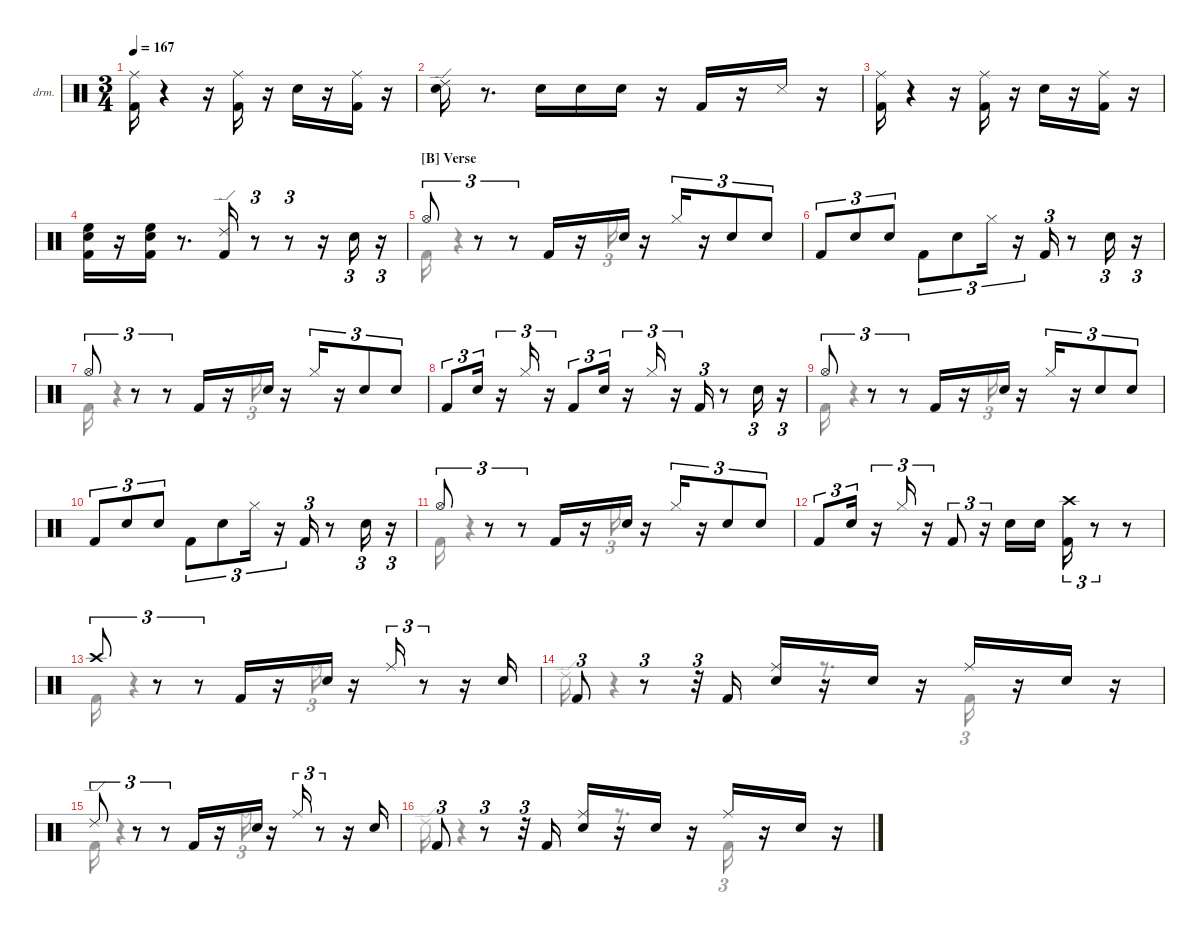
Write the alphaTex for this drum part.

\hideDynamics
\bracketExtendMode nobrackets
\firstSystemTrackNameOrientation horizontal
\otherSystemsTrackNameOrientation horizontal
\track ("Drums" "drm.") {instrument percussion}
\staff {score}
\articulation defaults
\voice
\ts (3 4)
\tempo 167
\clef neutral
\ks aminor
("Ride (middle)"{acc #} "Kick (hit) 2").16{dy fff beam Down} r.4{beam Down} r.16{beam Down} ("Ride (middle)"{acc #} "Kick (hit) 2").16{dy ff beam Down} r.16{beam Down} "Snare (hit) 2".16{dy mp beam Down} r.16{beam Down} ("Kick (hit) 2" "Ride (middle)"{acc #}).16{dy ff beam Down} r.16{beam Down} |
("Snare (hit) 2" "Ride (edge) 2").16{beam Down} r.8{d beam Down} "Snare (hit) 2".16{dy p beam Down} "Snare (hit) 2".16{dy ppp beam Down} "Snare (hit) 2".16{dy mf beam Down} r.16{beam Down} "Kick (hit) 2".16{dy mp beam Up} r.16{beam Up} "Snare (side stick) 3"{acc #}.16{dy fff beam Down} r.16{beam Down} |
("Ride (middle)"{acc #} "Kick (hit) 2").16{beam Down} r.4{beam Down} r.16{beam Down} ("Kick (hit) 2" "Ride (middle)"{acc #}).16{dy ff beam Down} r.16{beam Down} "Snare (hit) 2".16{dy mp beam Down} r.16{beam Down} ("Kick (hit) 2" "Ride (middle)"{acc #}).16{dy ff beam Down} r.16{beam Down} |
("Snare (hit) 2" "Kick (hit) 2" "High Floor Tom (hit)").16{beam Down} r.16{beam Down} ("Kick (hit) 2" "Snare (hit) 2" "High Floor Tom (hit)").16{beam Down} r.8{d beam Down} ("Kick (hit) 2" "Ride (edge) 2").16{dy fff beam Up} r.8{tu (3 2) beam Up} r.8{tu (3 2) beam Up} r.16{beam Up} "Snare (hit) 2".16{tu (3 2) dy mf beam Down} r.16{tu (3 2) beam Down} |
\section ("B" "Verse")
"Hi-Hat (open)"{acc #}.8{tu (3 2) dy ff beam Up} r.8{tu (3 2) beam Up} r.8{tu (3 2) beam Up} "Kick (hit) 2".16{beam Up} r.16{beam Up} "Snare (hit) 2".16{beam Up} r.16{beam Up} "Hi-Hat (closed)"{acc #}.16{tu (3 2) dy fff beam Up} r.16{tu (3 2) beam Up} "Snare (hit) 2".8{tu (3 2) dy ff beam Up} "Snare (hit) 2".8{tu (3 2) beam Up} |
"Kick (hit) 2".8{tu (3 2) beam Up} "Snare (hit) 2".8{tu (3 2) beam Up} "Snare (hit) 2".8{tu (3 2) beam Up} "Kick (hit) 2".8{tu (3 2) beam Down} "Snare (hit) 2".8{tu (3 2) beam Down} "Hi-Hat (closed)"{acc #}.16{tu (3 2) beam Down} r.16{tu (3 2) beam Down} "Kick (hit) 2".16{tu (3 2) beam Up} r.8{beam Up} "Snare (hit) 2".16{tu (3 2) beam Down} r.16{tu (3 2) beam Down} |
"Hi-Hat (open)"{acc #}.8{tu (3 2) beam Up} r.8{tu (3 2) beam Up} r.8{tu (3 2) beam Up} "Kick (hit) 2".16{beam Up} r.16{beam Up} "Snare (hit) 2".16{beam Up} r.16{beam Up} "Hi-Hat (closed)"{acc #}.16{tu (3 2) dy fff beam Up} r.16{tu (3 2) beam Up} "Snare (hit) 2".8{tu (3 2) dy ff beam Up} "Snare (hit) 2".8{tu (3 2) beam Up} |
"Kick (hit) 2".8{tu (3 2) beam Up} "Snare (hit) 2".16{tu (3 2) dy f beam Up} r.16{tu (3 2) beam Up} "Hi-Hat (closed)"{acc #}.16{tu (3 2) dy ff beam Down} r.16{tu (3 2) beam Down} "Kick (hit) 2".8{tu (3 2) beam Up} "Snare (hit) 2".16{tu (3 2) dy f beam Up} r.16{tu (3 2) beam Up} "Hi-Hat (closed)"{acc #}.16{tu (3 2) dy ff beam Down} r.16{tu (3 2) beam Down} "Kick (hit) 2".16{tu (3 2) beam Up} r.8{beam Up} "Snare (hit) 2".16{tu (3 2) beam Down} r.16{tu (3 2) beam Down} |
"Hi-Hat (open)"{acc #}.8{tu (3 2) beam Up} r.8{tu (3 2) beam Up} r.8{tu (3 2) beam Up} "Kick (hit) 2".16{beam Up} r.16{beam Up} "Snare (hit) 2".16{beam Up} r.16{beam Up} "Hi-Hat (closed)"{acc #}.16{tu (3 2) dy fff beam Up} r.16{tu (3 2) beam Up} "Snare (hit) 2".8{tu (3 2) dy ff beam Up} "Snare (hit) 2".8{tu (3 2) beam Up} |
"Kick (hit) 2".8{tu (3 2) beam Up} "Snare (hit) 2".8{tu (3 2) beam Up} "Snare (hit) 2".8{tu (3 2) beam Up} "Kick (hit) 2".8{tu (3 2) beam Down} "Snare (hit) 2".8{tu (3 2) beam Down} "Hi-Hat (closed)"{acc #}.16{tu (3 2) beam Down} r.16{tu (3 2) beam Down} "Kick (hit) 2".16{tu (3 2) beam Up} r.8{beam Up} "Snare (hit) 2".16{tu (3 2) beam Down} r.16{tu (3 2) beam Down} |
"Hi-Hat (open)"{acc #}.8{tu (3 2) beam Up} r.8{tu (3 2) beam Up} r.8{tu (3 2) beam Up} "Kick (hit) 2".16{beam Up} r.16{beam Up} "Snare (hit) 2".16{beam Up} r.16{beam Up} "Hi-Hat (closed)"{acc #}.16{tu (3 2) dy fff beam Up} r.16{tu (3 2) beam Up} "Snare (hit) 2".8{tu (3 2) dy ff beam Up} "Snare (hit) 2".8{tu (3 2) beam Up} |
"Kick (hit) 2".8{tu (3 2) beam Up} "Snare (hit) 2".16{tu (3 2) dy f beam Up} r.16{tu (3 2) beam Up} "Hi-Hat (closed)"{acc #}.16{tu (3 2) dy ff beam Down} r.16{tu (3 2) beam Down} "Kick (hit) 2".8{tu (3 2) beam Up} r.16{tu (3 2) beam Up} "Snare (hit) 2".16{dy f beam Down} "Snare (hit) 2".16{dy p beam Down} ("Kick (hit) 2" "Crash high (hit)"{acc #}).16{tu (3 2) dy ff beam Down} r.8{tu (3 2) beam Down} r.8{beam Down} |
"Crash high (hit)"{acc #}.8{tu (3 2) dy fff beam Up} r.8{tu (3 2) beam Up} r.8{tu (3 2) beam Up} "Kick (hit) 2".16{dy ff beam Up} r.16{beam Up} "Snare (hit) 2".16{beam Up} r.16{beam Up} "Ride (middle)"{acc #}.16{tu (3 2) dy fff beam Up} r.8{tu (3 2) beam Up} r.16{beam Up} "Snare (hit) 2".16{dy ff beam Up} |
"Kick (hit) 2".8{tu (3 2) beam Up} r.8{tu (3 2) beam Up} r.32{tu (3 2) beam Up} "Kick (hit) 2".16{beam Up} ("Snare (hit) 2" "Ride (middle)"{acc #}).16{beam Up} r.16{beam Up} "Snare (hit) 2".16{dy mp beam Up} r.16{beam Up} "Ride (middle)"{acc #}.16{dy fff beam Up} r.16{beam Up} "Snare (hit) 2".16{dy ff beam Up} r.16{beam Up} |
"Ride (edge) 2".8{tu (3 2) dy fff beam Up} r.8{tu (3 2) beam Up} r.8{tu (3 2) beam Up} "Kick (hit) 2".16{dy ff beam Up} r.16{beam Up} "Snare (hit) 2".16{beam Up} r.16{beam Up} "Ride (middle)"{acc #}.16{tu (3 2) dy fff beam Up} r.8{tu (3 2) beam Up} r.16{beam Up} "Snare (hit) 2".16{dy ff beam Up} |
"Kick (hit) 2".8{tu (3 2) beam Up} r.8{tu (3 2) beam Up} r.32{tu (3 2) beam Up} "Kick (hit) 2".16{beam Up} ("Snare (hit) 2" "Ride (middle)"{acc #}).16{dy mf beam Up} r.16{beam Up} "Snare (hit) 2".16{dy mp beam Up} r.16{beam Up} "Ride (middle)"{acc #}.16{dy fff beam Up} r.16{beam Up} "Snare (hit) 2".16{dy ff beam Up} r.16{beam Up}
\voice
\clef neutral
\ottava regular
\simile none
\ks aminor
|
|
|
|
"Kick (hit) 2".16{beam Down} r.4{beam Down} r.16{beam Down} "Hi-Hat (closed)"{acc #}.16{tu (3 2) beam Down} |
|
"Kick (hit) 2".16{beam Down} r.4{beam Down} r.16{beam Down} "Hi-Hat (closed)"{acc #}.16{tu (3 2) beam Down} |
|
"Kick (hit) 2".16{beam Down} r.4{beam Down} r.16{beam Down} "Hi-Hat (closed)"{acc #}.16{tu (3 2) beam Down} |
|
"Kick (hit) 2".16{beam Down} r.4{beam Down} r.16{beam Down} "Hi-Hat (closed)"{acc #}.16{tu (3 2) beam Down} |
|
"Kick (hit) 2".16{beam Down} r.4{beam Down} r.16{beam Down} "Ride (bell)".16{tu (3 2) dy mp beam Down} |
"Ride (edge) 2".16{dy ff beam Down} r.4{beam Down} r.8{d beam Down} "Kick (hit) 2".16{tu (3 2) beam Down} |
"Kick (hit) 2".16{beam Down} r.4{beam Down} r.16{beam Down} "Ride (bell)".16{tu (3 2) dy mp beam Down} |
"Ride (edge) 2".16{dy ff beam Down} r.4{beam Down} r.8{d beam Down} "Kick (hit) 2".16{tu (3 2) beam Down}
